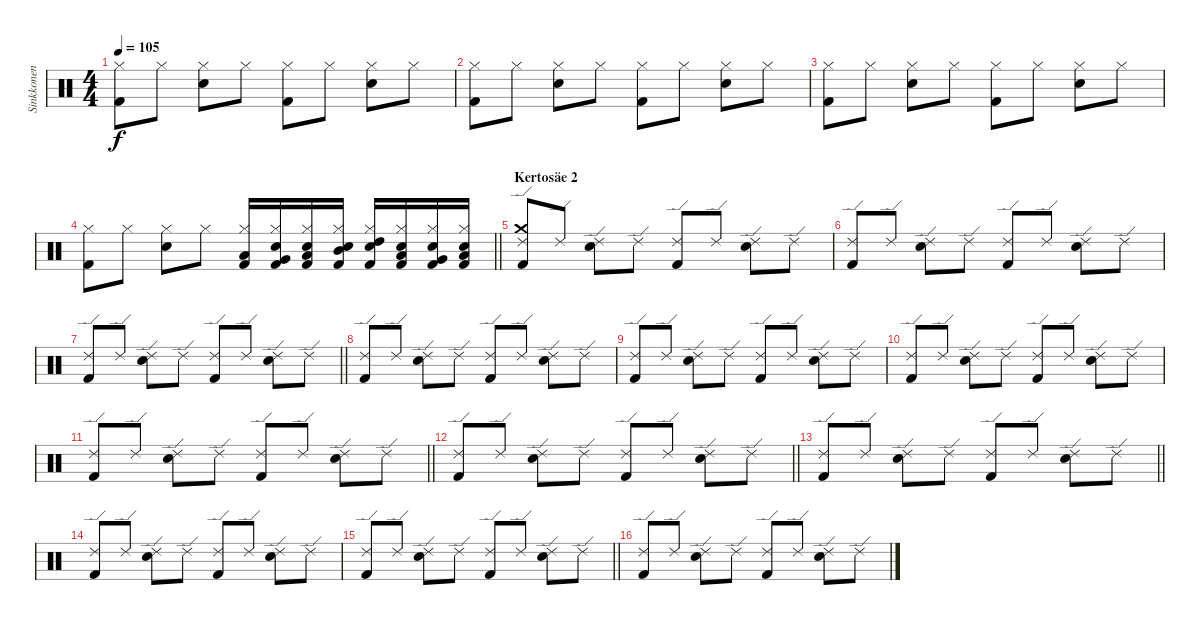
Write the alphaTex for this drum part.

\track ("Sinkkonen" "Sinkkonen") {instrument percussion}
\staff {score}
\articulation defaults
\ts (4 4)
\tempo 105
\clef neutral
\ks c
("Kick (hit) 2" "Hi-Hat (closed)").8{dy f} "Hi-Hat (closed)".8 ("Electric Snare (hit)" "Hi-Hat (closed)").8 "Hi-Hat (closed)".8 ("Kick (hit) 2" "Hi-Hat (closed)").8 "Hi-Hat (closed)".8 ("Electric Snare (hit)" "Hi-Hat (closed)").8 "Hi-Hat (closed)".8 |
("Kick (hit) 2" "Hi-Hat (closed)").8 "Hi-Hat (closed)".8 ("Electric Snare (hit)" "Hi-Hat (closed)").8 "Hi-Hat (closed)".8 ("Kick (hit) 2" "Hi-Hat (closed)").8 "Hi-Hat (closed)".8 ("Electric Snare (hit)" "Hi-Hat (closed)").8 "Hi-Hat (closed)".8 |
("Kick (hit) 2" "Hi-Hat (closed)").8 "Hi-Hat (closed)".8 ("Electric Snare (hit)" "Hi-Hat (closed)").8 "Hi-Hat (closed)".8 ("Kick (hit) 2" "Hi-Hat (closed)").8 "Hi-Hat (closed)".8 ("Electric Snare (hit)" "Hi-Hat (closed)").8 "Hi-Hat (closed)".8 |
\barLineRight lightlight
("Kick (hit) 2" "Hi-Hat (closed)").8 "Hi-Hat (closed)".8 ("Electric Snare (hit)" "Hi-Hat (closed)").8 "Hi-Hat (closed)".8 ("Kick (hit) 2" "Hi-Hat (closed)" "Low Floor Tom (hit)").16 ("Electric Snare (hit)" "Hi-Hat (closed)" "Kick (hit) 2" "Very Low Tom (hit)").16 ("Electric Snare (hit)" "Hi-Hat (closed)" "Kick (hit) 2" "Low Tom (hit)").16 ("Electric Snare (hit)" "Hi-Hat (closed)" "Kick (hit) 2" "Mid Tom (hit)").16 ("Electric Snare (hit)" "Hi-Hat (closed)" "Kick (hit) 2" "High Tom (hit)").16 ("Electric Snare (hit)" "Hi-Hat (closed)" "Kick (hit) 2" "Low Floor Tom (hit)").16 ("Electric Snare (hit)" "Hi-Hat (closed)" "Kick (hit) 2" "Very Low Tom (hit)").16 ("Electric Snare (hit)" "Hi-Hat (closed)" "Kick (hit) 2" "Low Tom (hit)").16 |
\section ("" "Kertosäe 2")
("Crash medium (hit)" "Ride (edge) 2" "Kick (hit) 2").8 "Ride (edge) 2".8 ("Ride (edge) 2" "Electric Snare (hit)").8 "Ride (edge) 2".8 ("Ride (edge) 2" "Kick (hit) 2").8 "Ride (edge) 2".8 ("Ride (edge) 2" "Electric Snare (hit)").8 "Ride (edge) 2".8 |
("Ride (edge) 2" "Kick (hit) 2").8 "Ride (edge) 2".8 ("Ride (edge) 2" "Electric Snare (hit)").8 "Ride (edge) 2".8 ("Ride (edge) 2" "Kick (hit) 2").8 "Ride (edge) 2".8 ("Ride (edge) 2" "Electric Snare (hit)").8 "Ride (edge) 2".8 |
\barLineRight lightlight
("Ride (edge) 2" "Kick (hit) 2").8 "Ride (edge) 2".8 ("Ride (edge) 2" "Electric Snare (hit)").8 "Ride (edge) 2".8 ("Ride (edge) 2" "Kick (hit) 2").8 "Ride (edge) 2".8 ("Ride (edge) 2" "Electric Snare (hit)").8 "Ride (edge) 2".8 |
("Ride (edge) 2" "Kick (hit) 2").8 "Ride (edge) 2".8 ("Ride (edge) 2" "Electric Snare (hit)").8 "Ride (edge) 2".8 ("Ride (edge) 2" "Kick (hit) 2").8 "Ride (edge) 2".8 ("Ride (edge) 2" "Electric Snare (hit)").8 "Ride (edge) 2".8 |
("Ride (edge) 2" "Kick (hit) 2").8 "Ride (edge) 2".8 ("Ride (edge) 2" "Electric Snare (hit)").8 "Ride (edge) 2".8 ("Ride (edge) 2" "Kick (hit) 2").8 "Ride (edge) 2".8 ("Ride (edge) 2" "Electric Snare (hit)").8 "Ride (edge) 2".8 |
("Ride (edge) 2" "Kick (hit) 2").8 "Ride (edge) 2".8 ("Ride (edge) 2" "Electric Snare (hit)").8 "Ride (edge) 2".8 ("Ride (edge) 2" "Kick (hit) 2").8 "Ride (edge) 2".8 ("Ride (edge) 2" "Electric Snare (hit)").8 "Ride (edge) 2".8 |
\barLineRight lightlight
("Ride (edge) 2" "Kick (hit) 2").8 "Ride (edge) 2".8 ("Ride (edge) 2" "Electric Snare (hit)").8 "Ride (edge) 2".8 ("Ride (edge) 2" "Kick (hit) 2").8 "Ride (edge) 2".8 ("Ride (edge) 2" "Electric Snare (hit)").8 "Ride (edge) 2".8 |
\barLineRight lightlight
("Ride (edge) 2" "Kick (hit) 2").8 "Ride (edge) 2".8 ("Ride (edge) 2" "Electric Snare (hit)").8 "Ride (edge) 2".8 ("Ride (edge) 2" "Kick (hit) 2").8 "Ride (edge) 2".8 ("Ride (edge) 2" "Electric Snare (hit)").8 "Ride (edge) 2".8 |
\section ("" "")
\barLineRight lightlight
("Ride (edge) 2" "Kick (hit) 2").8 "Ride (edge) 2".8 ("Ride (edge) 2" "Electric Snare (hit)").8 "Ride (edge) 2".8 ("Ride (edge) 2" "Kick (hit) 2").8 "Ride (edge) 2".8 ("Ride (edge) 2" "Electric Snare (hit)").8 "Ride (edge) 2".8 |
\section ("" "")
("Ride (edge) 2" "Kick (hit) 2").8 "Ride (edge) 2".8 ("Ride (edge) 2" "Electric Snare (hit)").8 "Ride (edge) 2".8 ("Ride (edge) 2" "Kick (hit) 2").8 "Ride (edge) 2".8 ("Ride (edge) 2" "Electric Snare (hit)").8 "Ride (edge) 2".8 |
\barLineRight lightlight
("Ride (edge) 2" "Kick (hit) 2").8 "Ride (edge) 2".8 ("Ride (edge) 2" "Electric Snare (hit)").8 "Ride (edge) 2".8 ("Ride (edge) 2" "Kick (hit) 2").8 "Ride (edge) 2".8 ("Ride (edge) 2" "Electric Snare (hit)").8 "Ride (edge) 2".8 |
("Ride (edge) 2" "Kick (hit) 2").8 "Ride (edge) 2".8 ("Ride (edge) 2" "Electric Snare (hit)").8 "Ride (edge) 2".8 ("Ride (edge) 2" "Kick (hit) 2").8 "Ride (edge) 2".8 ("Ride (edge) 2" "Electric Snare (hit)").8 "Ride (edge) 2".8
